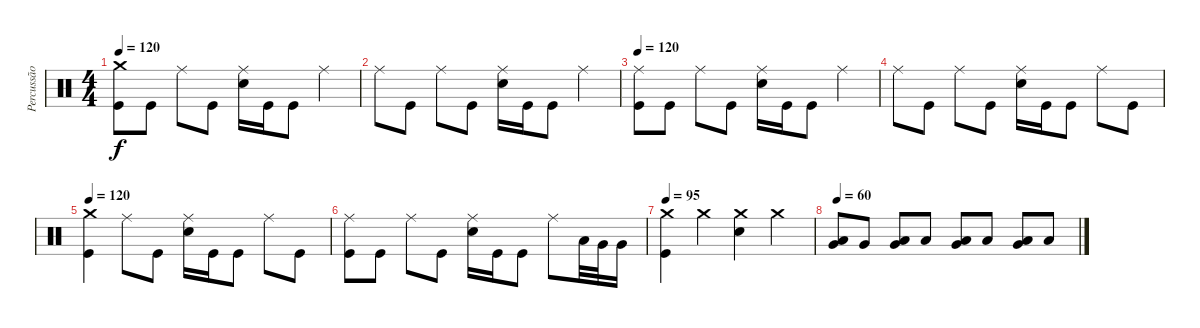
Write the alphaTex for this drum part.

\track ("Percussão" "Percussão") {instrument percussion}
\staff {score}
\articulation defaults
\ts (4 4)
\tempo 120
\clef neutral
\ks c
("Kick (hit)" "Crash medium (hit)").8{dy f} "Kick (hit)".8 "Ride (middle)".8 "Kick (hit)".8 ("Electric Snare (hit)" "Ride (middle)").16 "Kick (hit)".16 "Kick (hit)".8 "Ride (middle)".4 |
"Ride (middle)".8 "Kick (hit)".8 "Ride (middle)".8 "Kick (hit)".8 ("Electric Snare (hit)" "Ride (middle)").16 "Kick (hit)".16 "Kick (hit)".8 "Ride (middle)".4 |
\tempo 120
("Kick (hit)" "Ride (middle)").8 "Kick (hit)".8 "Ride (middle)".8 "Kick (hit)".8 ("Electric Snare (hit)" "Ride (middle)").16 "Kick (hit)".16 "Kick (hit)".8 "Ride (middle)".4 |
"Ride (middle)".8 "Kick (hit)".8 "Ride (middle)".8 "Kick (hit)".8 ("Electric Snare (hit)" "Ride (middle)").16 "Kick (hit)".16 "Kick (hit)".8 "Ride (middle)".8 "Kick (hit)".8 |
\tempo 120
("Kick (hit)" "Crash medium (hit)").4 "Ride (middle)".8 "Kick (hit)".8 ("Electric Snare (hit)" "Ride (middle)").16 "Kick (hit)".16 "Kick (hit)".8 "Ride (middle)".8 "Kick (hit)".8 |
("Kick (hit)" "Ride (middle)").8 "Kick (hit)".8 "Ride (middle)".8 "Kick (hit)".8 ("Electric Snare (hit)" "Ride (middle)").16 "Kick (hit)".16 "Kick (hit)".8 "Ride (middle)".8 "Low Tom (hit)".32 "Very Low Tom (hit)".32 "Very Low Tom (hit)".16 |
\tempo 95
("Kick (hit)" "Crash medium (hit)").4 "Crash medium (hit)".4 ("Electric Snare (hit)" "Crash medium (hit)").4 "Crash medium (hit)".4 |
\tempo 60
("Low Tom (hit)" "Very Low Tom (hit)").8 "Very Low Tom (hit)".8 ("Low Floor Tom (hit)" "Very Low Tom (hit)").8 "Low Floor Tom (hit)".8 ("Low Floor Tom (hit)" "Very Low Tom (hit)").8 "Low Floor Tom (hit)".8 ("Low Floor Tom (hit)" "Very Low Tom (hit)").8 "Low Floor Tom (hit)".8
